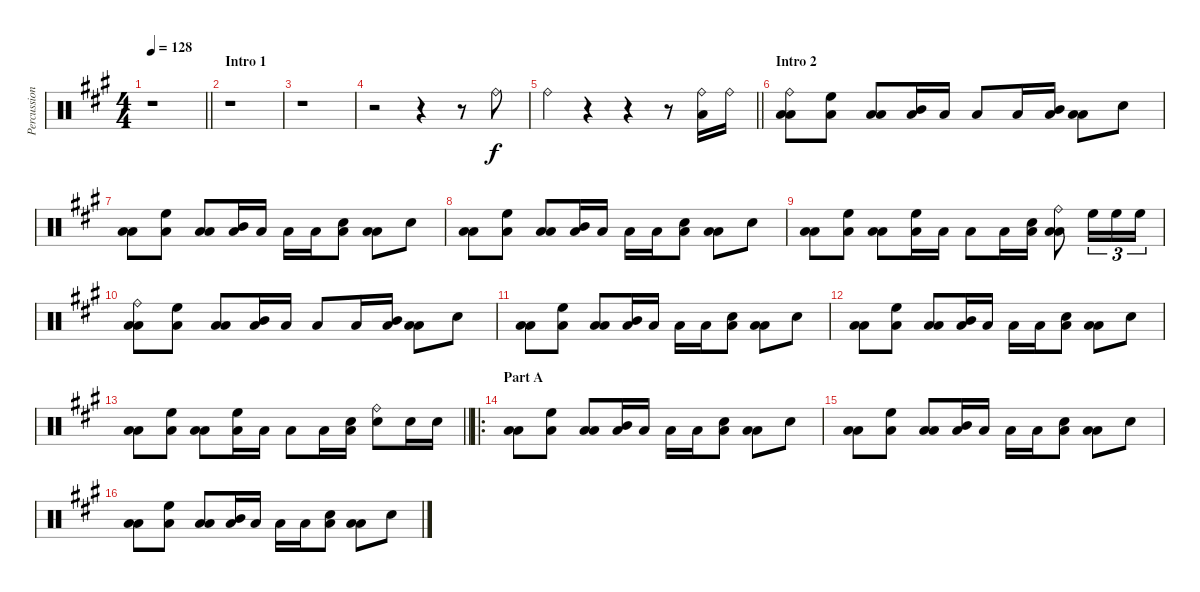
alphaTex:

\track ("Percussions" "Percussion") {instrument percussion}
\staff {score}
\articulation defaults
\ts (4 4)
\tempo 128
\clef neutral
\barLineRight lightlight
\ks a
r.1{dy f} |
\section ("" "Intro 1")
r.1 |
r.1 |
r.2 r.4 r.8 "Ride (bell)".8 |
\barLineRight lightlight "Ride (bell)".4
r.4 r.4 r.8 ("Ride (bell)" "Low Floor Tom (hit)").16 "Ride (bell)".16 |
\section ("" "Intro 2")
("Ride (bell)" "Low Tom (hit)" "Low Floor Tom (hit)").8 ("High Floor Tom (hit)" "Low Tom (hit)").8 ("Low Tom (hit)" "Low Floor Tom (hit)").8 ("Mid Tom (hit)" "Low Tom (hit)").16 "Low Floor Tom (hit)".16 "Low Tom (hit)".8 "Low Floor Tom (hit)".16 ("Mid Tom (hit)" "Low Tom (hit)").16 ("Low Floor Tom (hit)" "Low Tom (hit)").8 "Snare (hit) 2".8 |
("Low Tom (hit)" "Low Floor Tom (hit)").8 ("High Floor Tom (hit)" "Low Tom (hit)").8 ("Low Floor Tom (hit)" "Low Tom (hit)").8 ("Mid Tom (hit)" "Low Tom (hit)").16 "Low Floor Tom (hit)".16 "Low Tom (hit)".16 "Low Floor Tom (hit)".16 ("Snare (hit) 2" "Low Tom (hit)").8 ("Low Floor Tom (hit)" "Low Tom (hit)").8 "Snare (hit) 2".8 |
("Low Tom (hit)" "Low Floor Tom (hit)").8 ("High Floor Tom (hit)" "Low Tom (hit)").8 ("Low Floor Tom (hit)" "Low Tom (hit)").8 ("Mid Tom (hit)" "Low Tom (hit)").16 "Low Floor Tom (hit)".16 "Low Tom (hit)".16 "Low Floor Tom (hit)".16 ("Snare (hit) 2" "Low Tom (hit)").8 ("Low Floor Tom (hit)" "Low Tom (hit)").8 "Snare (hit) 2".8 |
("Low Tom (hit)" "Low Floor Tom (hit)").8 ("High Floor Tom (hit)" "Low Tom (hit)").8 ("Low Floor Tom (hit)" "Low Tom (hit)").8 ("High Floor Tom (hit)" "Low Tom (hit)").16 "Low Floor Tom (hit)".16 "Low Tom (hit)".8 "Low Floor Tom (hit)".16 ("Low Tom (hit)" "Snare (hit) 2").16 ("Ride (bell)" "Low Floor Tom (hit)" "Low Tom (hit)").8 "High Floor Tom (hit)".16{tu (3 2)} "High Floor Tom (hit)".16{tu (3 2)} "High Floor Tom (hit)".16{tu (3 2)} |
("Ride (bell)" "Low Tom (hit)" "Low Floor Tom (hit)").8 ("High Floor Tom (hit)" "Low Tom (hit)").8 ("Low Tom (hit)" "Low Floor Tom (hit)").8 ("Mid Tom (hit)" "Low Tom (hit)").16 "Low Floor Tom (hit)".16 "Low Tom (hit)".8 "Low Floor Tom (hit)".16 ("Mid Tom (hit)" "Low Tom (hit)").16 ("Low Floor Tom (hit)" "Low Tom (hit)").8 "Snare (hit) 2".8 |
("Low Tom (hit)" "Low Floor Tom (hit)").8 ("High Floor Tom (hit)" "Low Tom (hit)").8 ("Low Floor Tom (hit)" "Low Tom (hit)").8 ("Mid Tom (hit)" "Low Tom (hit)").16 "Low Floor Tom (hit)".16 "Low Tom (hit)".16 "Low Floor Tom (hit)".16 ("Snare (hit) 2" "Low Tom (hit)").8 ("Low Floor Tom (hit)" "Low Tom (hit)").8 "Snare (hit) 2".8 |
("Low Tom (hit)" "Low Floor Tom (hit)").8 ("High Floor Tom (hit)" "Low Tom (hit)").8 ("Low Floor Tom (hit)" "Low Tom (hit)").8 ("Mid Tom (hit)" "Low Tom (hit)").16 "Low Floor Tom (hit)".16 "Low Tom (hit)".16 "Low Floor Tom (hit)".16 ("Snare (hit) 2" "Low Tom (hit)").8 ("Low Floor Tom (hit)" "Low Tom (hit)").8 "Snare (hit) 2".8 |
\barLineRight lightlight
("Low Tom (hit)" "Low Floor Tom (hit)").8 ("High Floor Tom (hit)" "Low Tom (hit)").8 ("Low Floor Tom (hit)" "Low Tom (hit)").8 ("High Floor Tom (hit)" "Low Tom (hit)").16 "Low Floor Tom (hit)".16 "Low Tom (hit)".8 "Low Floor Tom (hit)".16 ("Low Tom (hit)" "Snare (hit) 2").16 ("Ride (bell)" "Snare (hit) 2").8 "Snare (hit) 2".16 "Snare (hit) 2".16 |
\ro
\section ("" "Part A")
("Low Tom (hit)" "Low Floor Tom (hit)").8 ("High Floor Tom (hit)" "Low Tom (hit)").8 ("Low Floor Tom (hit)" "Low Tom (hit)").8 ("Mid Tom (hit)" "Low Tom (hit)").16 "Low Floor Tom (hit)".16 "Low Tom (hit)".16 "Low Floor Tom (hit)".16 ("Snare (hit) 2" "Low Tom (hit)").8 ("Low Floor Tom (hit)" "Low Tom (hit)").8 "Snare (hit) 2".8 |
("Low Tom (hit)" "Low Floor Tom (hit)").8 ("High Floor Tom (hit)" "Low Tom (hit)").8 ("Low Floor Tom (hit)" "Low Tom (hit)").8 ("Mid Tom (hit)" "Low Tom (hit)").16 "Low Floor Tom (hit)".16 "Low Tom (hit)".16 "Low Floor Tom (hit)".16 ("Snare (hit) 2" "Low Tom (hit)").8 ("Low Floor Tom (hit)" "Low Tom (hit)").8 "Snare (hit) 2".8 |
("Low Tom (hit)" "Low Floor Tom (hit)").8 ("High Floor Tom (hit)" "Low Tom (hit)").8 ("Low Floor Tom (hit)" "Low Tom (hit)").8 ("Mid Tom (hit)" "Low Tom (hit)").16 "Low Floor Tom (hit)".16 "Low Tom (hit)".16 "Low Floor Tom (hit)".16 ("Snare (hit) 2" "Low Tom (hit)").8 ("Low Floor Tom (hit)" "Low Tom (hit)").8 "Snare (hit) 2".8
